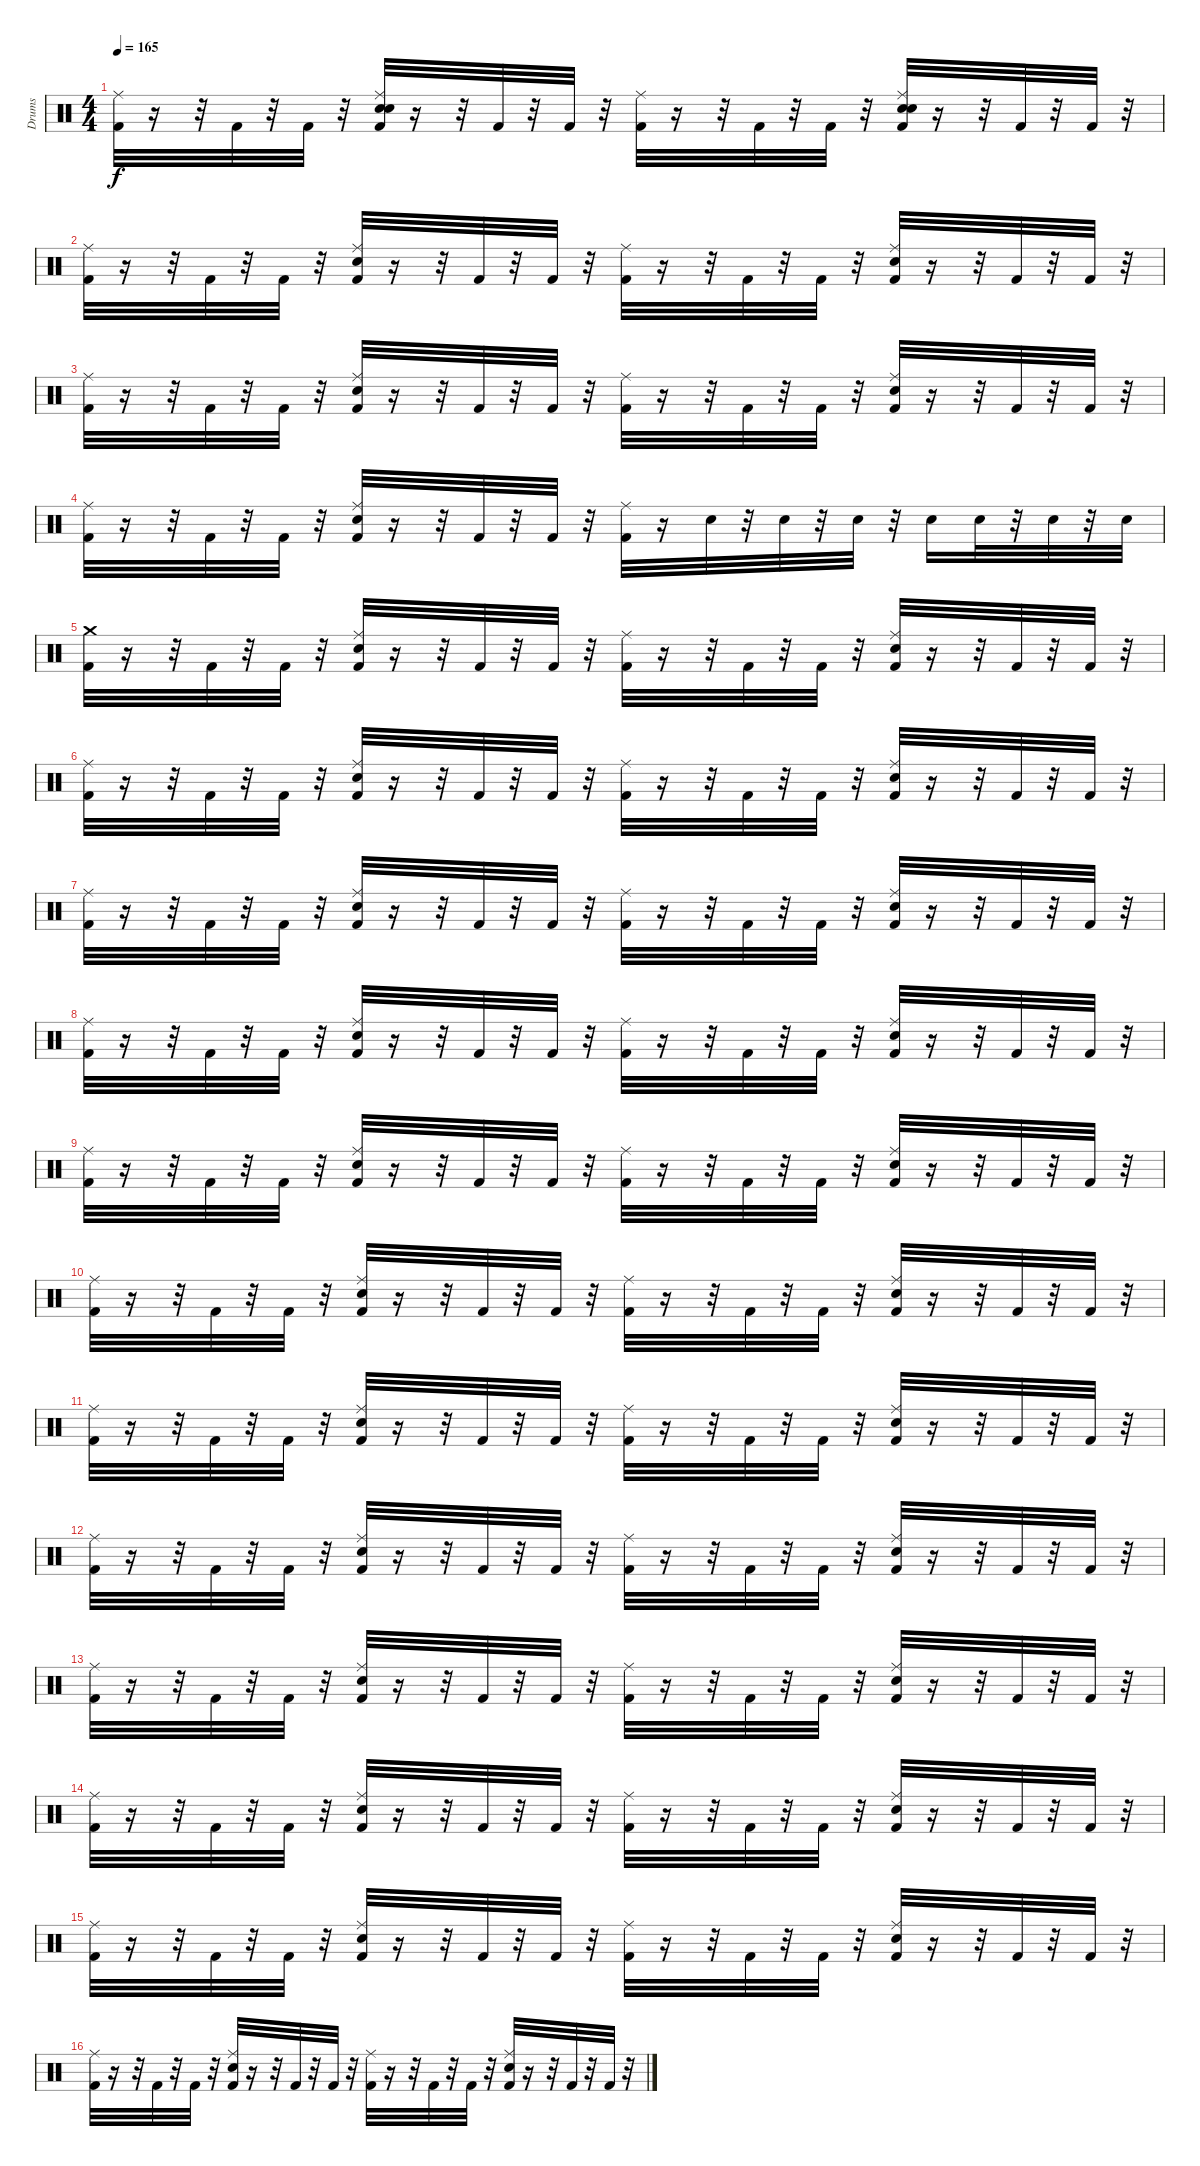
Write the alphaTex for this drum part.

\track ("Drums" "Drums") {instrument percussion}
\staff {score}
\articulation defaults
\ts (4 4)
\tempo 165
\clef neutral
\ks c
("Kick (hit) 2" "Ride (middle)").32{dy f} r.16 r.32 "Kick (hit) 2".32 r.32 "Kick (hit) 2".32 r.32 ("Ride (middle)" "Snare (hit) 2" "Electric Snare (hit)" "Kick (hit) 2").32 r.16 r.32 "Kick (hit) 2".32 r.32 "Kick (hit) 2".32 r.32 ("Kick (hit) 2" "Ride (middle)").32 r.16 r.32 "Kick (hit) 2".32 r.32 "Kick (hit) 2".32 r.32 ("Ride (middle)" "Snare (hit) 2" "Electric Snare (hit)" "Kick (hit) 2").32 r.16 r.32 "Kick (hit) 2".32 r.32 "Kick (hit) 2".32 r.32 |
("Ride (middle)" "Kick (hit) 2").32 r.16 r.32 "Kick (hit) 2".32 r.32 "Kick (hit) 2".32 r.32 ("Ride (middle)" "Snare (hit) 2" "Kick (hit) 2").32 r.16 r.32 "Kick (hit) 2".32 r.32 "Kick (hit) 2".32 r.32 ("Ride (middle)" "Kick (hit) 2").32 r.16 r.32 "Kick (hit) 2".32 r.32 "Kick (hit) 2".32 r.32 ("Ride (middle)" "Snare (hit) 2" "Kick (hit) 2").32 r.16 r.32 "Kick (hit) 2".32 r.32 "Kick (hit) 2".32 r.32 |
("Kick (hit) 2" "Ride (middle)").32 r.16 r.32 "Kick (hit) 2".32 r.32 "Kick (hit) 2".32 r.32 ("Ride (middle)" "Snare (hit) 2" "Kick (hit) 2").32 r.16 r.32 "Kick (hit) 2".32 r.32 "Kick (hit) 2".32 r.32 ("Kick (hit) 2" "Ride (middle)").32 r.16 r.32 "Kick (hit) 2".32 r.32 "Kick (hit) 2".32 r.32 ("Snare (hit) 2" "Ride (middle)" "Kick (hit) 2").32 r.16 r.32 "Kick (hit) 2".32 r.32 "Kick (hit) 2".32 r.32 |
("Ride (middle)" "Kick (hit) 2").32 r.16 r.32 "Kick (hit) 2".32 r.32 "Kick (hit) 2".32 r.32 ("Ride (middle)" "Snare (hit) 2" "Kick (hit) 2").32 r.16 r.32 "Kick (hit) 2".32 r.32 "Kick (hit) 2".32 r.32 ("Ride (middle)" "Kick (hit) 2").32 r.16 "Snare (hit) 2".32 r.32 "Snare (hit) 2".32 r.32 "Snare (hit) 2".32 r.32 "Snare (hit) 2".16 "Snare (hit) 2".32 r.32 "Snare (hit) 2".32 r.32 "Snare (hit) 2".32 |
("Crash medium (hit)" "Kick (hit) 2").32 r.16 r.32 "Kick (hit) 2".32 r.32 "Kick (hit) 2".32 r.32 ("Ride (middle)" "Snare (hit) 2" "Kick (hit) 2").32 r.16 r.32 "Kick (hit) 2".32 r.32 "Kick (hit) 2".32 r.32 ("Ride (middle)" "Kick (hit) 2").32 r.16 r.32 "Kick (hit) 2".32 r.32 "Kick (hit) 2".32 r.32 ("Ride (middle)" "Snare (hit) 2" "Kick (hit) 2").32 r.16 r.32 "Kick (hit) 2".32 r.32 "Kick (hit) 2".32 r.32 |
("Ride (middle)" "Kick (hit) 2").32 r.16 r.32 "Kick (hit) 2".32 r.32 "Kick (hit) 2".32 r.32 ("Ride (middle)" "Snare (hit) 2" "Kick (hit) 2").32 r.16 r.32 "Kick (hit) 2".32 r.32 "Kick (hit) 2".32 r.32 ("Ride (middle)" "Kick (hit) 2").32 r.16 r.32 "Kick (hit) 2".32 r.32 "Kick (hit) 2".32 r.32 ("Ride (middle)" "Snare (hit) 2" "Kick (hit) 2").32 r.16 r.32 "Kick (hit) 2".32 r.32 "Kick (hit) 2".32 r.32 |
("Kick (hit) 2" "Ride (middle)").32 r.16 r.32 "Kick (hit) 2".32 r.32 "Kick (hit) 2".32 r.32 ("Ride (middle)" "Snare (hit) 2" "Kick (hit) 2").32 r.16 r.32 "Kick (hit) 2".32 r.32 "Kick (hit) 2".32 r.32 ("Kick (hit) 2" "Ride (middle)").32 r.16 r.32 "Kick (hit) 2".32 r.32 "Kick (hit) 2".32 r.32 ("Snare (hit) 2" "Ride (middle)" "Kick (hit) 2").32 r.16 r.32 "Kick (hit) 2".32 r.32 "Kick (hit) 2".32 r.32 |
("Ride (middle)" "Kick (hit) 2").32 r.16 r.32 "Kick (hit) 2".32 r.32 "Kick (hit) 2".32 r.32 ("Ride (middle)" "Snare (hit) 2" "Kick (hit) 2").32 r.16 r.32 "Kick (hit) 2".32 r.32 "Kick (hit) 2".32 r.32 ("Ride (middle)" "Kick (hit) 2").32 r.16 r.32 "Kick (hit) 2".32 r.32 "Kick (hit) 2".32 r.32 ("Ride (middle)" "Snare (hit) 2" "Kick (hit) 2").32 r.16 r.32 "Kick (hit) 2".32 r.32 "Kick (hit) 2".32 r.32 |
("Kick (hit) 2" "Ride (middle)").32 r.16 r.32 "Kick (hit) 2".32 r.32 "Kick (hit) 2".32 r.32 ("Ride (middle)" "Snare (hit) 2" "Kick (hit) 2").32 r.16 r.32 "Kick (hit) 2".32 r.32 "Kick (hit) 2".32 r.32 ("Kick (hit) 2" "Ride (middle)").32 r.16 r.32 "Kick (hit) 2".32 r.32 "Kick (hit) 2".32 r.32 ("Snare (hit) 2" "Ride (middle)" "Kick (hit) 2").32 r.16 r.32 "Kick (hit) 2".32 r.32 "Kick (hit) 2".32 r.32 |
("Ride (middle)" "Kick (hit) 2").32 r.16 r.32 "Kick (hit) 2".32 r.32 "Kick (hit) 2".32 r.32 ("Ride (middle)" "Snare (hit) 2" "Kick (hit) 2").32 r.16 r.32 "Kick (hit) 2".32 r.32 "Kick (hit) 2".32 r.32 ("Ride (middle)" "Kick (hit) 2").32 r.16 r.32 "Kick (hit) 2".32 r.32 "Kick (hit) 2".32 r.32 ("Ride (middle)" "Snare (hit) 2" "Kick (hit) 2").32 r.16 r.32 "Kick (hit) 2".32 r.32 "Kick (hit) 2".32 r.32 |
("Kick (hit) 2" "Ride (middle)").32 r.16 r.32 "Kick (hit) 2".32 r.32 "Kick (hit) 2".32 r.32 ("Ride (middle)" "Snare (hit) 2" "Kick (hit) 2").32 r.16 r.32 "Kick (hit) 2".32 r.32 "Kick (hit) 2".32 r.32 ("Kick (hit) 2" "Ride (middle)").32 r.16 r.32 "Kick (hit) 2".32 r.32 "Kick (hit) 2".32 r.32 ("Snare (hit) 2" "Ride (middle)" "Kick (hit) 2").32 r.16 r.32 "Kick (hit) 2".32 r.32 "Kick (hit) 2".32 r.32 |
("Ride (middle)" "Kick (hit) 2").32 r.16 r.32 "Kick (hit) 2".32 r.32 "Kick (hit) 2".32 r.32 ("Ride (middle)" "Snare (hit) 2" "Kick (hit) 2").32 r.16 r.32 "Kick (hit) 2".32 r.32 "Kick (hit) 2".32 r.32 ("Ride (middle)" "Kick (hit) 2").32 r.16 r.32 "Kick (hit) 2".32 r.32 "Kick (hit) 2".32 r.32 ("Ride (middle)" "Snare (hit) 2" "Kick (hit) 2").32 r.16 r.32 "Kick (hit) 2".32 r.32 "Kick (hit) 2".32 r.32 |
("Ride (middle)" "Kick (hit) 2").32 r.16 r.32 "Kick (hit) 2".32 r.32 "Kick (hit) 2".32 r.32 ("Ride (middle)" "Snare (hit) 2" "Kick (hit) 2").32 r.16 r.32 "Kick (hit) 2".32 r.32 "Kick (hit) 2".32 r.32 ("Ride (middle)" "Kick (hit) 2").32 r.16 r.32 "Kick (hit) 2".32 r.32 "Kick (hit) 2".32 r.32 ("Ride (middle)" "Snare (hit) 2" "Kick (hit) 2").32 r.16 r.32 "Kick (hit) 2".32 r.32 "Kick (hit) 2".32 r.32 |
("Ride (middle)" "Kick (hit) 2").32 r.16 r.32 "Kick (hit) 2".32 r.32 "Kick (hit) 2".32 r.32 ("Ride (middle)" "Snare (hit) 2" "Kick (hit) 2").32 r.16 r.32 "Kick (hit) 2".32 r.32 "Kick (hit) 2".32 r.32 ("Ride (middle)" "Kick (hit) 2").32 r.16 r.32 "Kick (hit) 2".32 r.32 "Kick (hit) 2".32 r.32 ("Ride (middle)" "Snare (hit) 2" "Kick (hit) 2").32 r.16 r.32 "Kick (hit) 2".32 r.32 "Kick (hit) 2".32 r.32 |
("Kick (hit) 2" "Ride (middle)").32 r.16 r.32 "Kick (hit) 2".32 r.32 "Kick (hit) 2".32 r.32 ("Ride (middle)" "Snare (hit) 2" "Kick (hit) 2").32 r.16 r.32 "Kick (hit) 2".32 r.32 "Kick (hit) 2".32 r.32 ("Kick (hit) 2" "Ride (middle)").32 r.16 r.32 "Kick (hit) 2".32 r.32 "Kick (hit) 2".32 r.32 ("Snare (hit) 2" "Ride (middle)" "Kick (hit) 2").32 r.16 r.32 "Kick (hit) 2".32 r.32 "Kick (hit) 2".32 r.32 |
("Ride (middle)" "Kick (hit) 2").32 r.16 r.32 "Kick (hit) 2".32 r.32 "Kick (hit) 2".32 r.32 ("Ride (middle)" "Snare (hit) 2" "Kick (hit) 2").32 r.16 r.32 "Kick (hit) 2".32 r.32 "Kick (hit) 2".32 r.32 ("Ride (middle)" "Kick (hit) 2").32 r.16 r.32 "Kick (hit) 2".32 r.32 "Kick (hit) 2".32 r.32 ("Ride (middle)" "Snare (hit) 2" "Kick (hit) 2").32 r.16 r.32 "Kick (hit) 2".32 r.32 "Kick (hit) 2".32 r.32
